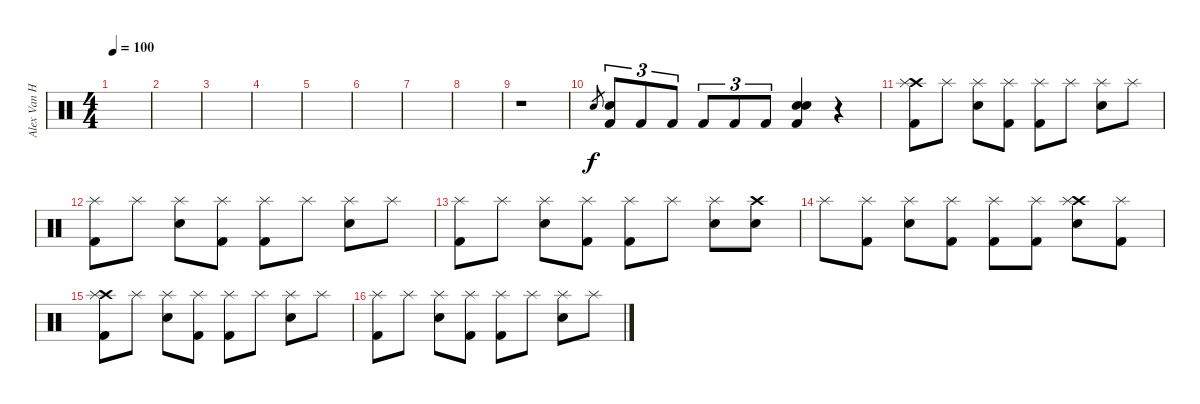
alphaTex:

\track ("Alex Van Halen" "Alex Van H") {instrument percussion}
\staff {score}
\articulation defaults
\ts (4 4)
\tempo 100
\clef neutral
\ks c
|
|
|
|
|
|
|
|
r.1 |
"Snare (hit) 2".8{gr} ("Electric Snare (hit)" "Kick (hit) 2").8{tu (3 2)} "Kick (hit) 2".8{tu (3 2)} "Kick (hit) 2".8{tu (3 2)} "Kick (hit) 2".8{tu (3 2)} "Kick (hit) 2".8{tu (3 2)} "Kick (hit) 2".8{tu (3 2)} ("Electric Snare (hit)" "Snare (hit) 2" "Kick (hit) 2").4 r.4 |
("Crash high (hit)" "Kick (hit) 2" "Splash (hit)").8 "Splash (hit)".8 ("Snare (hit) 2" "Splash (hit)").8 ("Kick (hit) 2" "Splash (hit)").8 ("Kick (hit) 2" "Splash (hit)").8 "Splash (hit)".8 ("Snare (hit) 2" "Splash (hit)").8 "Splash (hit)".8 |
("Kick (hit) 2" "Splash (hit)").8 "Splash (hit)".8 ("Snare (hit) 2" "Splash (hit)").8 ("Kick (hit) 2" "Splash (hit)").8 ("Kick (hit) 2" "Splash (hit)").8 "Splash (hit)".8 ("Snare (hit) 2" "Splash (hit)").8 "Splash (hit)".8 |
("Kick (hit) 2" "Splash (hit)").8 "Splash (hit)".8 ("Snare (hit) 2" "Splash (hit)").8 ("Kick (hit) 2" "Splash (hit)").8 ("Kick (hit) 2" "Splash (hit)").8 "Splash (hit)".8 ("Snare (hit) 2" "Splash (hit)").8 ("Crash high (hit)" "Electric Snare (hit)").8 |
"Splash (hit)".8 ("Kick (hit) 2" "Splash (hit)").8 ("Snare (hit) 2" "Splash (hit)").8 ("Kick (hit) 2" "Splash (hit)").8 ("Kick (hit) 2" "Splash (hit)").8 ("Kick (hit) 2" "Splash (hit)").8 ("Crash high (hit)" "Snare (hit) 2" "Splash (hit)").8 ("Kick (hit) 2" "Splash (hit)").8 |
("Crash high (hit)" "Kick (hit) 2" "Splash (hit)").8 "Splash (hit)".8 ("Snare (hit) 2" "Splash (hit)").8 ("Kick (hit) 2" "Splash (hit)").8 ("Kick (hit) 2" "Splash (hit)").8 "Splash (hit)".8 ("Snare (hit) 2" "Splash (hit)").8 "Splash (hit)".8 |
("Kick (hit) 2" "Splash (hit)").8 "Splash (hit)".8 ("Snare (hit) 2" "Splash (hit)").8 ("Kick (hit) 2" "Splash (hit)").8 ("Kick (hit) 2" "Splash (hit)").8 "Splash (hit)".8 ("Snare (hit) 2" "Splash (hit)").8 "Splash (hit)".8
